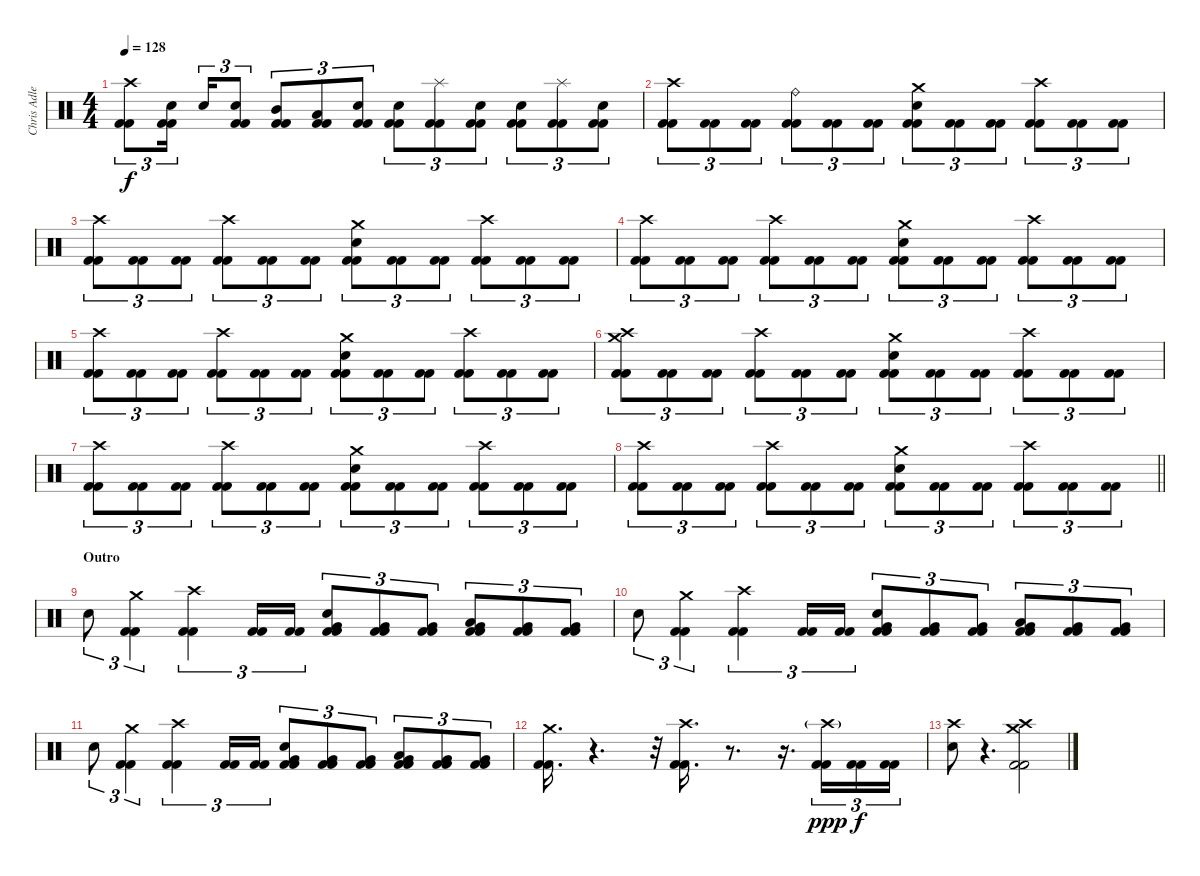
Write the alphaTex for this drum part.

\track ("Chris Adler" "Chris Adle") {instrument percussion}
\staff {score}
\articulation defaults
\ts (4 4)
\tempo 128
\clef neutral
\ks c
("Crash high (hit)" "Kick (hit) 2" "Kick (hit) 2").8{tu (3 2) dy f} ("Electric Snare (hit)" "Kick (hit) 2" "Kick (hit) 2").16{tu (3 2) beam splitsecondary} "Electric Snare (hit)".16{tu (3 2)} ("Electric Snare (hit)" "Kick (hit) 2" "Kick (hit) 2").8{tu (3 2)} ("Mid Tom (hit)" "Kick (hit) 2" "Kick (hit) 2").8{tu (3 2)} ("Low Tom (hit)" "Kick (hit) 2" "Kick (hit) 2").8{tu (3 2)} ("Electric Snare (hit)" "Kick (hit) 2" "Kick (hit) 2").8{tu (3 2)} ("Electric Snare (hit)" "Kick (hit) 2" "Kick (hit) 2").8{tu (3 2)} ("Splash (hit)" "Kick (hit) 2" "Kick (hit) 2").8{tu (3 2)} ("Electric Snare (hit)" "Kick (hit) 2" "Kick (hit) 2").8{tu (3 2)} ("Electric Snare (hit)" "Kick (hit) 2" "Kick (hit) 2").8{tu (3 2)} ("Splash (hit)" "Kick (hit) 2" "Kick (hit) 2").8{tu (3 2)} ("Electric Snare (hit)" "Kick (hit) 2" "Kick (hit) 2").8{tu (3 2)} |
("Crash high (hit)" "Kick (hit) 2" "Kick (hit) 2").8{tu (3 2)} ("Kick (hit) 2" "Kick (hit) 2").8{tu (3 2)} ("Kick (hit) 2" "Kick (hit) 2").8{tu (3 2)} ("Ride (bell)" "Kick (hit) 2" "Kick (hit) 2").8{tu (3 2)} ("Kick (hit) 2" "Kick (hit) 2").8{tu (3 2)} ("Kick (hit) 2" "Kick (hit) 2").8{tu (3 2)} ("Crash medium (hit)" "Electric Snare (hit)" "Kick (hit) 2" "Kick (hit) 2").8{tu (3 2)} ("Kick (hit) 2" "Kick (hit) 2").8{tu (3 2)} ("Kick (hit) 2" "Kick (hit) 2").8{tu (3 2)} ("Crash high (hit)" "Kick (hit) 2" "Kick (hit) 2").8{tu (3 2)} ("Kick (hit) 2" "Kick (hit) 2").8{tu (3 2)} ("Kick (hit) 2" "Kick (hit) 2").8{tu (3 2)} |
("Crash high (hit)" "Kick (hit) 2" "Kick (hit) 2").8{tu (3 2)} ("Kick (hit) 2" "Kick (hit) 2").8{tu (3 2)} ("Kick (hit) 2" "Kick (hit) 2").8{tu (3 2)} ("Crash high (hit)" "Kick (hit) 2" "Kick (hit) 2").8{tu (3 2)} ("Kick (hit) 2" "Kick (hit) 2").8{tu (3 2)} ("Kick (hit) 2" "Kick (hit) 2").8{tu (3 2)} ("Crash medium (hit)" "Electric Snare (hit)" "Kick (hit) 2" "Kick (hit) 2").8{tu (3 2)} ("Kick (hit) 2" "Kick (hit) 2").8{tu (3 2)} ("Kick (hit) 2" "Kick (hit) 2").8{tu (3 2)} ("Crash high (hit)" "Kick (hit) 2" "Kick (hit) 2").8{tu (3 2)} ("Kick (hit) 2" "Kick (hit) 2").8{tu (3 2)} ("Kick (hit) 2" "Kick (hit) 2").8{tu (3 2)} |
("Crash high (hit)" "Kick (hit) 2" "Kick (hit) 2").8{tu (3 2)} ("Kick (hit) 2" "Kick (hit) 2").8{tu (3 2)} ("Kick (hit) 2" "Kick (hit) 2").8{tu (3 2)} ("Crash high (hit)" "Kick (hit) 2" "Kick (hit) 2").8{tu (3 2)} ("Kick (hit) 2" "Kick (hit) 2").8{tu (3 2)} ("Kick (hit) 2" "Kick (hit) 2").8{tu (3 2)} ("Crash medium (hit)" "Electric Snare (hit)" "Kick (hit) 2" "Kick (hit) 2").8{tu (3 2)} ("Kick (hit) 2" "Kick (hit) 2").8{tu (3 2)} ("Kick (hit) 2" "Kick (hit) 2").8{tu (3 2)} ("Crash high (hit)" "Kick (hit) 2" "Kick (hit) 2").8{tu (3 2)} ("Kick (hit) 2" "Kick (hit) 2").8{tu (3 2)} ("Kick (hit) 2" "Kick (hit) 2").8{tu (3 2)} |
("Crash high (hit)" "Kick (hit) 2" "Kick (hit) 2").8{tu (3 2)} ("Kick (hit) 2" "Kick (hit) 2").8{tu (3 2)} ("Kick (hit) 2" "Kick (hit) 2").8{tu (3 2)} ("Crash high (hit)" "Kick (hit) 2" "Kick (hit) 2").8{tu (3 2)} ("Kick (hit) 2" "Kick (hit) 2").8{tu (3 2)} ("Kick (hit) 2" "Kick (hit) 2").8{tu (3 2)} ("Crash medium (hit)" "Electric Snare (hit)" "Kick (hit) 2" "Kick (hit) 2").8{tu (3 2)} ("Kick (hit) 2" "Kick (hit) 2").8{tu (3 2)} ("Kick (hit) 2" "Kick (hit) 2").8{tu (3 2)} ("Crash high (hit)" "Kick (hit) 2" "Kick (hit) 2").8{tu (3 2)} ("Kick (hit) 2" "Kick (hit) 2").8{tu (3 2)} ("Kick (hit) 2" "Kick (hit) 2").8{tu (3 2)} |
("Crash medium (hit)" "Crash high (hit)" "Kick (hit) 2" "Kick (hit) 2").8{tu (3 2)} ("Kick (hit) 2" "Kick (hit) 2").8{tu (3 2)} ("Kick (hit) 2" "Kick (hit) 2").8{tu (3 2)} ("Crash high (hit)" "Kick (hit) 2" "Kick (hit) 2").8{tu (3 2)} ("Kick (hit) 2" "Kick (hit) 2").8{tu (3 2)} ("Kick (hit) 2" "Kick (hit) 2").8{tu (3 2)} ("Crash medium (hit)" "Electric Snare (hit)" "Kick (hit) 2" "Kick (hit) 2").8{tu (3 2)} ("Kick (hit) 2" "Kick (hit) 2").8{tu (3 2)} ("Kick (hit) 2" "Kick (hit) 2").8{tu (3 2)} ("Crash high (hit)" "Kick (hit) 2" "Kick (hit) 2").8{tu (3 2)} ("Kick (hit) 2" "Kick (hit) 2").8{tu (3 2)} ("Kick (hit) 2" "Kick (hit) 2").8{tu (3 2)} |
("Crash high (hit)" "Kick (hit) 2" "Kick (hit) 2").8{tu (3 2)} ("Kick (hit) 2" "Kick (hit) 2").8{tu (3 2)} ("Kick (hit) 2" "Kick (hit) 2").8{tu (3 2)} ("Crash high (hit)" "Kick (hit) 2" "Kick (hit) 2").8{tu (3 2)} ("Kick (hit) 2" "Kick (hit) 2").8{tu (3 2)} ("Kick (hit) 2" "Kick (hit) 2").8{tu (3 2)} ("Crash medium (hit)" "Electric Snare (hit)" "Kick (hit) 2" "Kick (hit) 2").8{tu (3 2)} ("Kick (hit) 2" "Kick (hit) 2").8{tu (3 2)} ("Kick (hit) 2" "Kick (hit) 2").8{tu (3 2)} ("Crash high (hit)" "Kick (hit) 2" "Kick (hit) 2").8{tu (3 2)} ("Kick (hit) 2" "Kick (hit) 2").8{tu (3 2)} ("Kick (hit) 2" "Kick (hit) 2").8{tu (3 2)} |
\barLineRight lightlight
("Crash high (hit)" "Kick (hit) 2" "Kick (hit) 2").8{tu (3 2)} ("Kick (hit) 2" "Kick (hit) 2").8{tu (3 2)} ("Kick (hit) 2" "Kick (hit) 2").8{tu (3 2)} ("Crash high (hit)" "Kick (hit) 2" "Kick (hit) 2").8{tu (3 2)} ("Kick (hit) 2" "Kick (hit) 2").8{tu (3 2)} ("Kick (hit) 2" "Kick (hit) 2").8{tu (3 2)} ("Crash medium (hit)" "Electric Snare (hit)" "Kick (hit) 2" "Kick (hit) 2").8{tu (3 2)} ("Kick (hit) 2" "Kick (hit) 2").8{tu (3 2)} ("Kick (hit) 2" "Kick (hit) 2").8{tu (3 2)} ("Crash high (hit)" "Kick (hit) 2" "Kick (hit) 2").8{tu (3 2)} ("Kick (hit) 2" "Kick (hit) 2").8{tu (3 2)} ("Kick (hit) 2" "Kick (hit) 2").8{tu (3 2)} |
\section ("" "Outro")
"Electric Snare (hit)".8{tu (3 2)} ("Crash medium (hit)" "Kick (hit) 2" "Kick (hit) 2").4{tu (3 2)} ("Crash high (hit)" "Kick (hit) 2" "Kick (hit) 2").4{tu (3 2)} ("Kick (hit) 2" "Kick (hit) 2").16{tu (3 2)} ("Kick (hit) 2" "Kick (hit) 2").16{tu (3 2)} ("Very Low Tom (hit)" "Electric Snare (hit)" "Kick (hit) 2" "Kick (hit) 2").8{tu (3 2)} ("Very Low Tom (hit)" "Kick (hit) 2" "Kick (hit) 2").8{tu (3 2)} ("Very Low Tom (hit)" "Kick (hit) 2" "Kick (hit) 2").8{tu (3 2)} ("Low Tom (hit)" "Very Low Tom (hit)" "Kick (hit) 2" "Kick (hit) 2").8{tu (3 2)} ("Very Low Tom (hit)" "Kick (hit) 2" "Kick (hit) 2").8{tu (3 2)} ("Very Low Tom (hit)" "Kick (hit) 2" "Kick (hit) 2").8{tu (3 2)} |
"Electric Snare (hit)".8{tu (3 2)} ("Crash medium (hit)" "Kick (hit) 2" "Kick (hit) 2").4{tu (3 2)} ("Crash high (hit)" "Kick (hit) 2" "Kick (hit) 2").4{tu (3 2)} ("Kick (hit) 2" "Kick (hit) 2").16{tu (3 2)} ("Kick (hit) 2" "Kick (hit) 2").16{tu (3 2)} ("Very Low Tom (hit)" "Electric Snare (hit)" "Kick (hit) 2" "Kick (hit) 2").8{tu (3 2)} ("Very Low Tom (hit)" "Kick (hit) 2" "Kick (hit) 2").8{tu (3 2)} ("Very Low Tom (hit)" "Kick (hit) 2" "Kick (hit) 2").8{tu (3 2)} ("Low Tom (hit)" "Very Low Tom (hit)" "Kick (hit) 2" "Kick (hit) 2").8{tu (3 2)} ("Very Low Tom (hit)" "Kick (hit) 2" "Kick (hit) 2").8{tu (3 2)} ("Very Low Tom (hit)" "Kick (hit) 2" "Kick (hit) 2").8{tu (3 2)} |
"Electric Snare (hit)".8{tu (3 2)} ("Crash medium (hit)" "Kick (hit) 2" "Kick (hit) 2").4{tu (3 2)} ("Crash high (hit)" "Kick (hit) 2" "Kick (hit) 2").4{tu (3 2)} ("Kick (hit) 2" "Kick (hit) 2").16{tu (3 2)} ("Kick (hit) 2" "Kick (hit) 2").16{tu (3 2)} ("Very Low Tom (hit)" "Electric Snare (hit)" "Kick (hit) 2" "Kick (hit) 2").8{tu (3 2)} ("Very Low Tom (hit)" "Kick (hit) 2" "Kick (hit) 2").8{tu (3 2)} ("Very Low Tom (hit)" "Kick (hit) 2" "Kick (hit) 2").8{tu (3 2)} ("Low Tom (hit)" "Very Low Tom (hit)" "Kick (hit) 2" "Kick (hit) 2").8{tu (3 2)} ("Very Low Tom (hit)" "Kick (hit) 2" "Kick (hit) 2").8{tu (3 2)} ("Very Low Tom (hit)" "Kick (hit) 2" "Kick (hit) 2").8{tu (3 2)} |
("Crash medium (hit)" "Kick (hit) 2" "Kick (hit) 2").16{d} r.4{d volume 0} r.32 ("Crash high (hit)" "Kick (hit) 2" "Kick (hit) 2").16{d volume 13} r.8{d volume 0} r.16{d} ("Crash high (hit)"{g} "Kick (hit) 2" "Kick (hit) 2").16{tu (3 2) dy ppp volume 13} ("Kick (hit) 2" "Kick (hit) 2").16{tu (3 2) dy f} ("Kick (hit) 2" "Kick (hit) 2").16{tu (3 2)} |
("Crash high (hit)" "Electric Snare (hit)").8{volume 13} r.4{d volume 0} ("Crash medium (hit)" "Crash high (hit)" "Kick (hit) 2" "Kick (hit) 2").2{volume 13}
